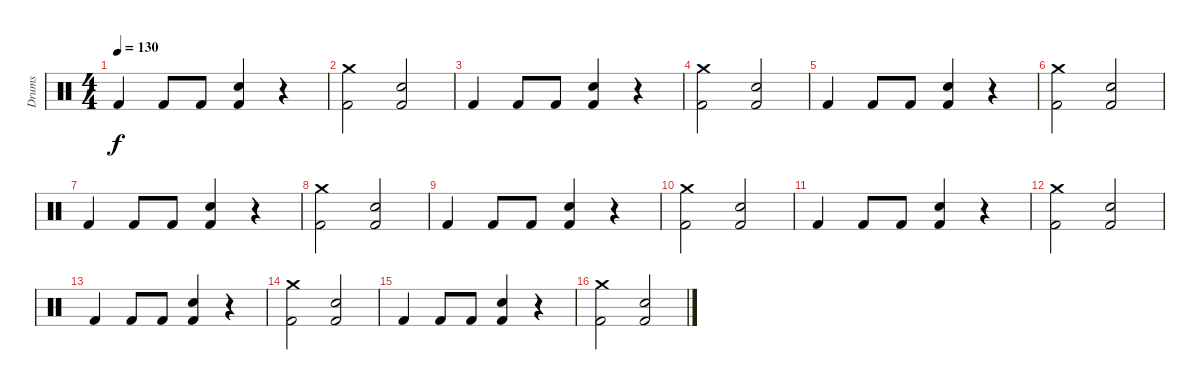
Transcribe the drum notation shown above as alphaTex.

\track ("Drums" "Drums") {instrument percussion}
\staff {score}
\articulation defaults
\ts (4 4)
\tempo 130
\clef neutral
\ks c "Kick (hit) 2".4{dy f} "Kick (hit) 2".8 "Kick (hit) 2".8
("Kick (hit) 2" "Snare (hit) 2").4 r.4 |
("Crash medium (hit)" "Kick (hit) 2").2 ("Kick (hit) 2" "Snare (hit) 2").2 |
"Kick (hit) 2".4 "Kick (hit) 2".8 "Kick (hit) 2".8 ("Kick (hit) 2" "Snare (hit) 2").4 r.4 |
("Crash medium (hit)" "Kick (hit) 2").2 ("Kick (hit) 2" "Snare (hit) 2").2 |
"Kick (hit) 2".4 "Kick (hit) 2".8 "Kick (hit) 2".8 ("Kick (hit) 2" "Snare (hit) 2").4 r.4 |
("Crash medium (hit)" "Kick (hit) 2").2 ("Kick (hit) 2" "Snare (hit) 2").2 |
"Kick (hit) 2".4 "Kick (hit) 2".8 "Kick (hit) 2".8 ("Kick (hit) 2" "Snare (hit) 2").4 r.4 |
("Crash medium (hit)" "Kick (hit) 2").2 ("Kick (hit) 2" "Snare (hit) 2").2 |
"Kick (hit) 2".4 "Kick (hit) 2".8 "Kick (hit) 2".8 ("Kick (hit) 2" "Snare (hit) 2").4 r.4 |
("Crash medium (hit)" "Kick (hit) 2").2 ("Kick (hit) 2" "Snare (hit) 2").2 |
"Kick (hit) 2".4 "Kick (hit) 2".8 "Kick (hit) 2".8 ("Kick (hit) 2" "Snare (hit) 2").4 r.4 |
("Crash medium (hit)" "Kick (hit) 2").2 ("Kick (hit) 2" "Snare (hit) 2").2 |
"Kick (hit) 2".4 "Kick (hit) 2".8 "Kick (hit) 2".8 ("Kick (hit) 2" "Snare (hit) 2").4 r.4 |
("Crash medium (hit)" "Kick (hit) 2").2 ("Kick (hit) 2" "Snare (hit) 2").2 |
"Kick (hit) 2".4 "Kick (hit) 2".8 "Kick (hit) 2".8 ("Kick (hit) 2" "Snare (hit) 2").4 r.4 |
("Crash medium (hit)" "Kick (hit) 2").2 ("Kick (hit) 2" "Snare (hit) 2").2
